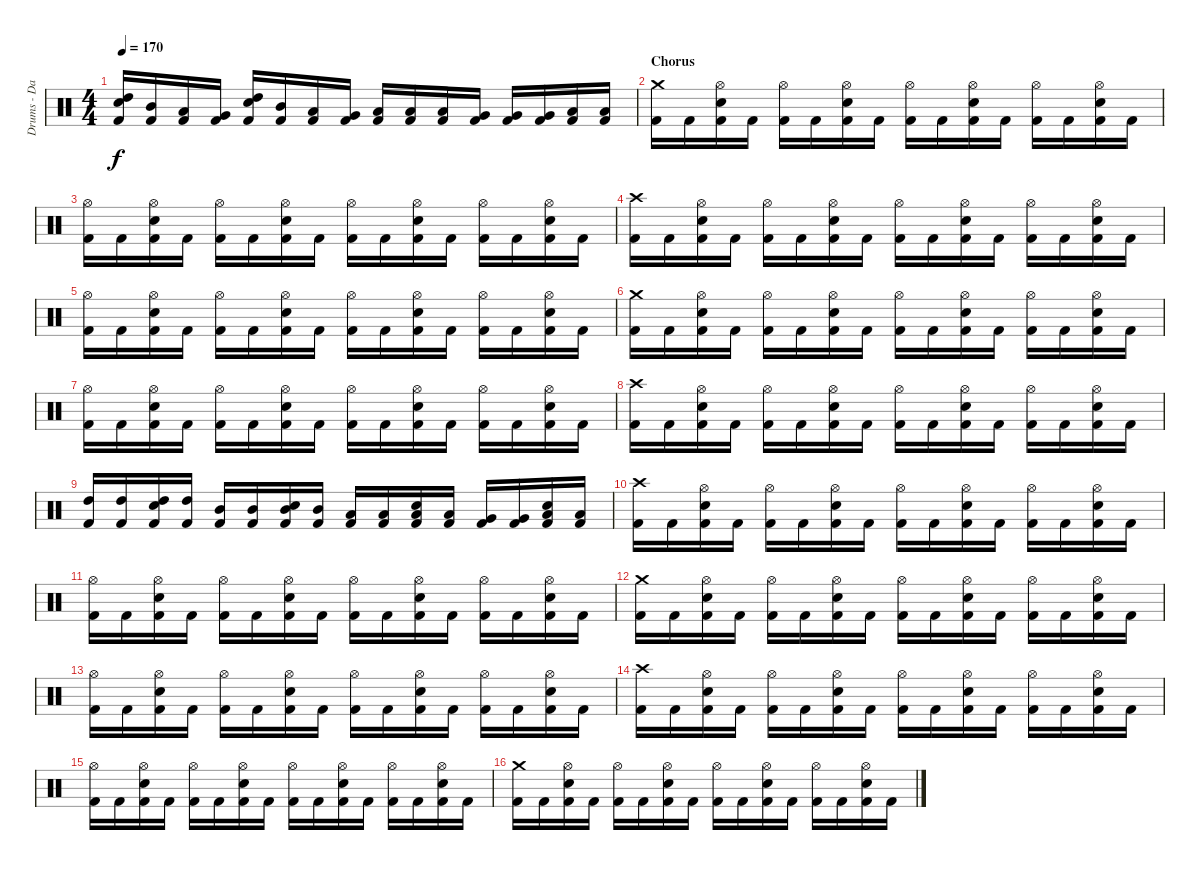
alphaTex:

\track ("Drums - Daniel Zimmermann" "Drums - Da") {instrument percussion}
\staff {score}
\articulation defaults
\ts (4 4)
\tempo 170
\clef neutral
\ks c
("Kick (hit) 2" "Electric Snare (hit)" "High Tom (hit)").16{dy f} ("Kick (hit) 2" "Mid Tom (hit)").16 ("Kick (hit) 2" "Low Tom (hit)").16 ("Kick (hit) 2" "Very Low Tom (hit)").16 ("Kick (hit) 2" "Electric Snare (hit)" "High Tom (hit)").16 ("Kick (hit) 2" "Mid Tom (hit)").16 ("Kick (hit) 2" "Low Tom (hit)").16 ("Kick (hit) 2" "Very Low Tom (hit)").16 ("Kick (hit) 2" "Low Tom (hit)").16 ("Kick (hit) 2" "Low Tom (hit)").16 ("Kick (hit) 2" "Low Tom (hit)").16 ("Kick (hit) 2" "Very Low Tom (hit)").16 ("Kick (hit) 2" "Very Low Tom (hit)").16 ("Kick (hit) 2" "Very Low Tom (hit)").16 ("Kick (hit) 2" "Low Floor Tom (hit)").16 ("Kick (hit) 2" "Low Floor Tom (hit)").16 |
\section ("" "Chorus")
("Kick (hit) 2" "Crash medium (hit)").16 "Kick (hit) 2".16 ("Kick (hit) 2" "Electric Snare (hit)" "Hi-Hat (open)").16 "Kick (hit) 2".16 ("Kick (hit) 2" "Hi-Hat (open)").16 "Kick (hit) 2".16 ("Kick (hit) 2" "Electric Snare (hit)" "Hi-Hat (open)").16 "Kick (hit) 2".16 ("Kick (hit) 2" "Hi-Hat (open)").16 "Kick (hit) 2".16 ("Kick (hit) 2" "Electric Snare (hit)" "Hi-Hat (open)").16 "Kick (hit) 2".16 ("Kick (hit) 2" "Hi-Hat (open)").16 "Kick (hit) 2".16 ("Kick (hit) 2" "Electric Snare (hit)" "Hi-Hat (open)").16 "Kick (hit) 2".16 |
("Kick (hit) 2" "Hi-Hat (open)").16 "Kick (hit) 2".16 ("Kick (hit) 2" "Electric Snare (hit)" "Hi-Hat (open)").16 "Kick (hit) 2".16 ("Kick (hit) 2" "Hi-Hat (open)").16 "Kick (hit) 2".16 ("Kick (hit) 2" "Electric Snare (hit)" "Hi-Hat (open)").16 "Kick (hit) 2".16 ("Kick (hit) 2" "Hi-Hat (open)").16 "Kick (hit) 2".16 ("Kick (hit) 2" "Electric Snare (hit)" "Hi-Hat (open)").16 "Kick (hit) 2".16 ("Kick (hit) 2" "Hi-Hat (open)").16 "Kick (hit) 2".16 ("Kick (hit) 2" "Electric Snare (hit)" "Hi-Hat (open)").16 "Kick (hit) 2".16 |
("Kick (hit) 2" "Crash high (hit)").16 "Kick (hit) 2".16 ("Kick (hit) 2" "Electric Snare (hit)" "Hi-Hat (open)").16 "Kick (hit) 2".16 ("Kick (hit) 2" "Hi-Hat (open)").16 "Kick (hit) 2".16 ("Kick (hit) 2" "Electric Snare (hit)" "Hi-Hat (open)").16 "Kick (hit) 2".16 ("Kick (hit) 2" "Hi-Hat (open)").16 "Kick (hit) 2".16 ("Kick (hit) 2" "Electric Snare (hit)" "Hi-Hat (open)").16 "Kick (hit) 2".16 ("Kick (hit) 2" "Hi-Hat (open)").16 "Kick (hit) 2".16 ("Kick (hit) 2" "Electric Snare (hit)" "Hi-Hat (open)").16 "Kick (hit) 2".16 |
("Kick (hit) 2" "Hi-Hat (open)").16 "Kick (hit) 2".16 ("Kick (hit) 2" "Electric Snare (hit)" "Hi-Hat (open)").16 "Kick (hit) 2".16 ("Kick (hit) 2" "Hi-Hat (open)").16 "Kick (hit) 2".16 ("Kick (hit) 2" "Electric Snare (hit)" "Hi-Hat (open)").16 "Kick (hit) 2".16 ("Kick (hit) 2" "Hi-Hat (open)").16 "Kick (hit) 2".16 ("Kick (hit) 2" "Electric Snare (hit)" "Hi-Hat (open)").16 "Kick (hit) 2".16 ("Kick (hit) 2" "Hi-Hat (open)").16 "Kick (hit) 2".16 ("Kick (hit) 2" "Electric Snare (hit)" "Hi-Hat (open)").16 "Kick (hit) 2".16 |
("Kick (hit) 2" "Crash medium (hit)").16 "Kick (hit) 2".16 ("Kick (hit) 2" "Electric Snare (hit)" "Hi-Hat (open)").16 "Kick (hit) 2".16 ("Kick (hit) 2" "Hi-Hat (open)").16 "Kick (hit) 2".16 ("Kick (hit) 2" "Electric Snare (hit)" "Hi-Hat (open)").16 "Kick (hit) 2".16 ("Kick (hit) 2" "Hi-Hat (open)").16 "Kick (hit) 2".16 ("Kick (hit) 2" "Electric Snare (hit)" "Hi-Hat (open)").16 "Kick (hit) 2".16 ("Kick (hit) 2" "Hi-Hat (open)").16 "Kick (hit) 2".16 ("Kick (hit) 2" "Electric Snare (hit)" "Hi-Hat (open)").16 "Kick (hit) 2".16 |
("Kick (hit) 2" "Hi-Hat (open)").16 "Kick (hit) 2".16 ("Kick (hit) 2" "Electric Snare (hit)" "Hi-Hat (open)").16 "Kick (hit) 2".16 ("Kick (hit) 2" "Hi-Hat (open)").16 "Kick (hit) 2".16 ("Kick (hit) 2" "Electric Snare (hit)" "Hi-Hat (open)").16 "Kick (hit) 2".16 ("Kick (hit) 2" "Hi-Hat (open)").16 "Kick (hit) 2".16 ("Kick (hit) 2" "Electric Snare (hit)" "Hi-Hat (open)").16 "Kick (hit) 2".16 ("Kick (hit) 2" "Hi-Hat (open)").16 "Kick (hit) 2".16 ("Kick (hit) 2" "Electric Snare (hit)" "Hi-Hat (open)").16 "Kick (hit) 2".16 |
("Kick (hit) 2" "Crash high (hit)").16 "Kick (hit) 2".16 ("Kick (hit) 2" "Electric Snare (hit)" "Hi-Hat (open)").16 "Kick (hit) 2".16 ("Kick (hit) 2" "Hi-Hat (open)").16 "Kick (hit) 2".16 ("Kick (hit) 2" "Electric Snare (hit)" "Hi-Hat (open)").16 "Kick (hit) 2".16 ("Kick (hit) 2" "Hi-Hat (open)").16 "Kick (hit) 2".16 ("Kick (hit) 2" "Electric Snare (hit)" "Hi-Hat (open)").16 "Kick (hit) 2".16 ("Kick (hit) 2" "Hi-Hat (open)").16 "Kick (hit) 2".16 ("Kick (hit) 2" "Electric Snare (hit)" "Hi-Hat (open)").16 "Kick (hit) 2".16 |
("Kick (hit) 2" "High Tom (hit)").16 ("Kick (hit) 2" "High Tom (hit)").16 ("Kick (hit) 2" "Electric Snare (hit)" "High Tom (hit)").16 ("Kick (hit) 2" "High Tom (hit)").16 ("Kick (hit) 2" "Mid Tom (hit)").16 ("Kick (hit) 2" "Mid Tom (hit)").16 ("Kick (hit) 2" "Electric Snare (hit)" "Mid Tom (hit)").16 ("Kick (hit) 2" "Mid Tom (hit)").16 ("Kick (hit) 2" "Low Tom (hit)").16 ("Kick (hit) 2" "Low Tom (hit)").16 ("Kick (hit) 2" "Electric Snare (hit)" "Low Tom (hit)").16 ("Kick (hit) 2" "Low Tom (hit)").16 ("Kick (hit) 2" "Very Low Tom (hit)").16 ("Kick (hit) 2" "Very Low Tom (hit)").16 ("Kick (hit) 2" "Electric Snare (hit)" "Low Floor Tom (hit)").16 ("Kick (hit) 2" "Low Floor Tom (hit)").16 |
("Kick (hit) 2" "Crash high (hit)").16 "Kick (hit) 2".16 ("Kick (hit) 2" "Electric Snare (hit)" "Hi-Hat (open)").16 "Kick (hit) 2".16 ("Kick (hit) 2" "Hi-Hat (open)").16 "Kick (hit) 2".16 ("Kick (hit) 2" "Electric Snare (hit)" "Hi-Hat (open)").16 "Kick (hit) 2".16 ("Kick (hit) 2" "Hi-Hat (open)").16 "Kick (hit) 2".16 ("Kick (hit) 2" "Electric Snare (hit)" "Hi-Hat (open)").16 "Kick (hit) 2".16 ("Kick (hit) 2" "Hi-Hat (open)").16 "Kick (hit) 2".16 ("Kick (hit) 2" "Electric Snare (hit)" "Hi-Hat (open)").16 "Kick (hit) 2".16 |
("Kick (hit) 2" "Hi-Hat (open)").16 "Kick (hit) 2".16 ("Kick (hit) 2" "Electric Snare (hit)" "Hi-Hat (open)").16 "Kick (hit) 2".16 ("Kick (hit) 2" "Hi-Hat (open)").16 "Kick (hit) 2".16 ("Kick (hit) 2" "Electric Snare (hit)" "Hi-Hat (open)").16 "Kick (hit) 2".16 ("Kick (hit) 2" "Hi-Hat (open)").16 "Kick (hit) 2".16 ("Kick (hit) 2" "Electric Snare (hit)" "Hi-Hat (open)").16 "Kick (hit) 2".16 ("Kick (hit) 2" "Hi-Hat (open)").16 "Kick (hit) 2".16 ("Kick (hit) 2" "Electric Snare (hit)" "Hi-Hat (open)").16 "Kick (hit) 2".16 |
("Kick (hit) 2" "Crash medium (hit)").16 "Kick (hit) 2".16 ("Kick (hit) 2" "Electric Snare (hit)" "Hi-Hat (open)").16 "Kick (hit) 2".16 ("Kick (hit) 2" "Hi-Hat (open)").16 "Kick (hit) 2".16 ("Kick (hit) 2" "Electric Snare (hit)" "Hi-Hat (open)").16 "Kick (hit) 2".16 ("Kick (hit) 2" "Hi-Hat (open)").16 "Kick (hit) 2".16 ("Kick (hit) 2" "Electric Snare (hit)" "Hi-Hat (open)").16 "Kick (hit) 2".16 ("Kick (hit) 2" "Hi-Hat (open)").16 "Kick (hit) 2".16 ("Kick (hit) 2" "Electric Snare (hit)" "Hi-Hat (open)").16 "Kick (hit) 2".16 |
("Kick (hit) 2" "Hi-Hat (open)").16 "Kick (hit) 2".16 ("Kick (hit) 2" "Electric Snare (hit)" "Hi-Hat (open)").16 "Kick (hit) 2".16 ("Kick (hit) 2" "Hi-Hat (open)").16 "Kick (hit) 2".16 ("Kick (hit) 2" "Electric Snare (hit)" "Hi-Hat (open)").16 "Kick (hit) 2".16 ("Kick (hit) 2" "Hi-Hat (open)").16 "Kick (hit) 2".16 ("Kick (hit) 2" "Electric Snare (hit)" "Hi-Hat (open)").16 "Kick (hit) 2".16 ("Kick (hit) 2" "Hi-Hat (open)").16 "Kick (hit) 2".16 ("Kick (hit) 2" "Electric Snare (hit)" "Hi-Hat (open)").16 "Kick (hit) 2".16 |
("Kick (hit) 2" "Crash high (hit)").16 "Kick (hit) 2".16 ("Kick (hit) 2" "Electric Snare (hit)" "Hi-Hat (open)").16 "Kick (hit) 2".16 ("Kick (hit) 2" "Hi-Hat (open)").16 "Kick (hit) 2".16 ("Kick (hit) 2" "Electric Snare (hit)" "Hi-Hat (open)").16 "Kick (hit) 2".16 ("Kick (hit) 2" "Hi-Hat (open)").16 "Kick (hit) 2".16 ("Kick (hit) 2" "Electric Snare (hit)" "Hi-Hat (open)").16 "Kick (hit) 2".16 ("Kick (hit) 2" "Hi-Hat (open)").16 "Kick (hit) 2".16 ("Kick (hit) 2" "Electric Snare (hit)" "Hi-Hat (open)").16 "Kick (hit) 2".16 |
("Kick (hit) 2" "Hi-Hat (open)").16 "Kick (hit) 2".16 ("Kick (hit) 2" "Electric Snare (hit)" "Hi-Hat (open)").16 "Kick (hit) 2".16 ("Kick (hit) 2" "Hi-Hat (open)").16 "Kick (hit) 2".16 ("Kick (hit) 2" "Electric Snare (hit)" "Hi-Hat (open)").16 "Kick (hit) 2".16 ("Kick (hit) 2" "Hi-Hat (open)").16 "Kick (hit) 2".16 ("Kick (hit) 2" "Electric Snare (hit)" "Hi-Hat (open)").16 "Kick (hit) 2".16 ("Kick (hit) 2" "Hi-Hat (open)").16 "Kick (hit) 2".16 ("Kick (hit) 2" "Electric Snare (hit)" "Hi-Hat (open)").16 "Kick (hit) 2".16 |
("Kick (hit) 2" "Crash medium (hit)").16 "Kick (hit) 2".16 ("Kick (hit) 2" "Electric Snare (hit)" "Hi-Hat (open)").16 "Kick (hit) 2".16 ("Kick (hit) 2" "Hi-Hat (open)").16 "Kick (hit) 2".16 ("Kick (hit) 2" "Electric Snare (hit)" "Hi-Hat (open)").16 "Kick (hit) 2".16 ("Kick (hit) 2" "Hi-Hat (open)").16 "Kick (hit) 2".16 ("Kick (hit) 2" "Electric Snare (hit)" "Hi-Hat (open)").16 "Kick (hit) 2".16 ("Kick (hit) 2" "Hi-Hat (open)").16 "Kick (hit) 2".16 ("Kick (hit) 2" "Electric Snare (hit)" "Hi-Hat (open)").16 "Kick (hit) 2".16
